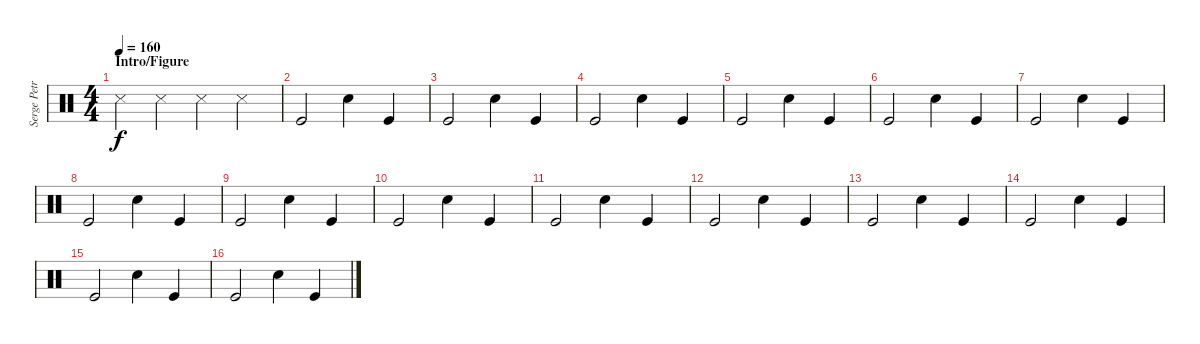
\track ("Serge Petrone" "Serge Petr") {instrument percussion}
\staff {score}
\articulation defaults
\ts (4 4)
\section ("" "Intro/Figure")
\tempo 160
\clef neutral
\ks c "Snare (side stick) 3".4{dy f} "Snare (side stick) 3".4 "Snare (side stick) 3".4 "Snare (side stick) 3".4
|
"Kick (hit)".2 "Snare (hit) 2".4 "Kick (hit)".4 |
"Kick (hit)".2 "Snare (hit) 2".4 "Kick (hit)".4 |
"Kick (hit)".2 "Snare (hit) 2".4 "Kick (hit)".4 |
"Kick (hit)".2 "Snare (hit) 2".4 "Kick (hit)".4 |
"Kick (hit)".2 "Snare (hit) 2".4 "Kick (hit)".4 |
"Kick (hit)".2 "Snare (hit) 2".4 "Kick (hit)".4 |
"Kick (hit)".2 "Snare (hit) 2".4 "Kick (hit)".4 |
"Kick (hit)".2 "Snare (hit) 2".4 "Kick (hit)".4 |
"Kick (hit)".2 "Snare (hit) 2".4 "Kick (hit)".4 |
"Kick (hit)".2 "Snare (hit) 2".4 "Kick (hit)".4 |
"Kick (hit)".2 "Snare (hit) 2".4 "Kick (hit)".4 |
"Kick (hit)".2 "Snare (hit) 2".4 "Kick (hit)".4 |
"Kick (hit)".2 "Snare (hit) 2".4 "Kick (hit)".4 |
"Kick (hit)".2 "Snare (hit) 2".4 "Kick (hit)".4 |
"Kick (hit)".2 "Snare (hit) 2".4 "Kick (hit)".4
